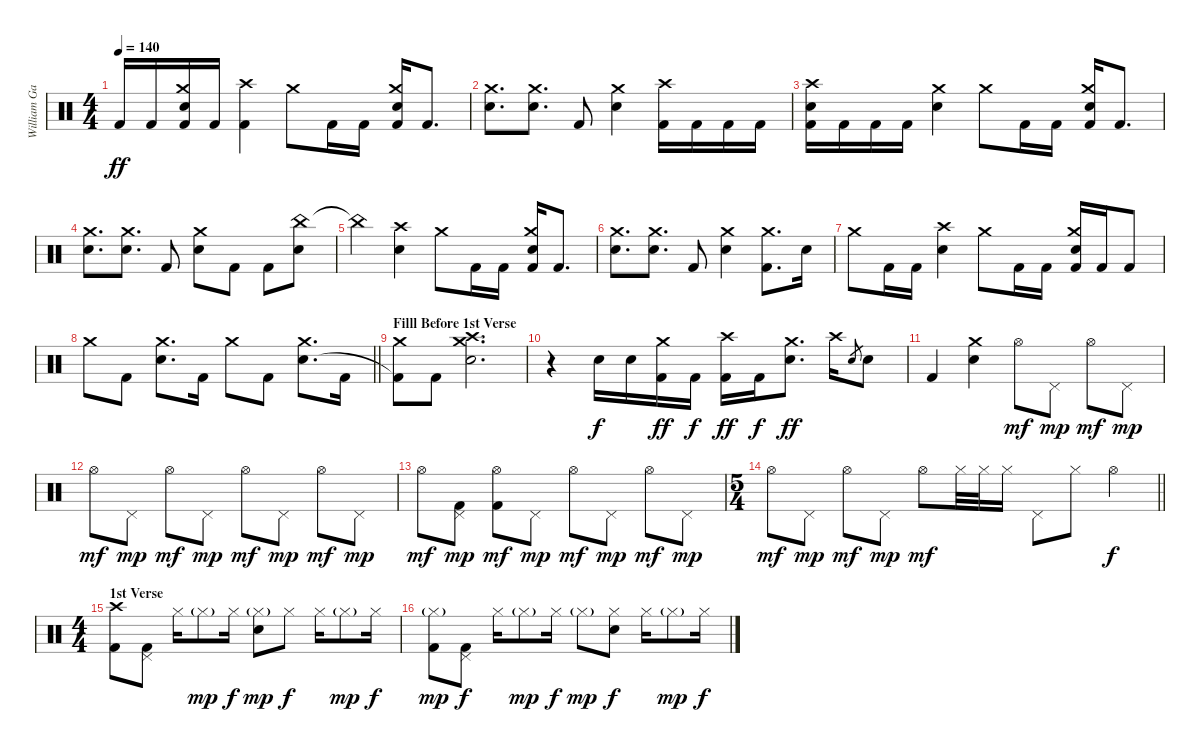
\track ("William Gates (Drums)" "William Ga") {instrument percussion}
\staff {score}
\articulation defaults
\ts (4 4)
\tempo 140
\clef neutral
\ks c "Kick (hit) 2".16{dy ff} "Kick (hit) 2".16
("Crash medium (hit)" "Snare (hit) 2" "Kick (hit) 2").16 "Kick (hit) 2".16 ("Crash high (hit)" "Kick (hit) 2").4 "Crash medium (hit)".8 "Kick (hit) 2".16 "Kick (hit) 2".16 ("Crash medium (hit)" "Snare (hit) 2" "Kick (hit) 2").16 "Kick (hit) 2".8{d} |
("Crash medium (hit)" "Snare (hit) 2").8{d} ("Crash medium (hit)" "Snare (hit) 2").8{d} "Kick (hit) 2".8 ("Crash medium (hit)" "Snare (hit) 2").4 ("Crash high (hit)" "Kick (hit) 2").16 "Kick (hit) 2".16 "Kick (hit) 2".16 "Kick (hit) 2".16 |
("Crash high (hit)" "Snare (hit) 2" "Kick (hit) 2").16 "Kick (hit) 2".16 "Kick (hit) 2".16 "Kick (hit) 2".16 ("Crash medium (hit)" "Snare (hit) 2").4 "Crash medium (hit)".8 "Kick (hit) 2".16 "Kick (hit) 2".16 ("Crash medium (hit)" "Snare (hit) 2" "Kick (hit) 2").16 "Kick (hit) 2".8{d} |
("Crash medium (hit)" "Snare (hit) 2").8{d} ("Crash medium (hit)" "Snare (hit) 2").8{d} "Kick (hit) 2".8 ("Crash medium (hit)" "Snare (hit) 2").8 "Kick (hit) 2".8 "Kick (hit) 2".8 ("China (hit)" "Snare (hit) 2").8 |
"China (hit)"{t}.4 ("Crash high (hit)" "Snare (hit) 2").4 "Crash medium (hit)".8 "Kick (hit) 2".16 "Kick (hit) 2".16 ("Crash medium (hit)" "Snare (hit) 2" "Kick (hit) 2").16 "Kick (hit) 2".8{d} |
("Crash medium (hit)" "Snare (hit) 2").8{d} ("Crash medium (hit)" "Snare (hit) 2").8{d} "Kick (hit) 2".8 ("Crash medium (hit)" "Snare (hit) 2").4 ("Crash medium (hit)" "Kick (hit) 2").8{d} "Snare (hit) 2".16 |
"Crash medium (hit)".8 "Kick (hit) 2".16 "Kick (hit) 2".16 ("Crash high (hit)" "Snare (hit) 2").4 "Crash medium (hit)".8 "Kick (hit) 2".16 "Kick (hit) 2".16 ("Crash medium (hit)" "Snare (hit) 2" "Kick (hit) 2").16 "Kick (hit) 2".16 "Kick (hit) 2".8 |
\barLineRight lightlight "Crash medium (hit)".8 "Kick (hit) 2".8
("Crash medium (hit)" "Snare (hit) 2").8{d} "Kick (hit) 2".16 "Crash medium (hit)".8 "Kick (hit) 2".8 ("Crash medium (hit)" "Snare (hit) 2").8{d} "Kick (hit) 2".16 |
\section ("" "Filll Before 1st Verse")
("Crash medium (hit)" "Kick (hit) 2"{t}).8 "Kick (hit) 2".8 ("Crash medium (hit)" "Crash high (hit)" "Snare (hit) 2").2{d} |
r.4 "Snare (hit) 2".16{dy f} "Snare (hit) 2".16 ("Crash medium (hit)" "Kick (hit) 2").16{dy ff} "Kick (hit) 2".16{dy f} ("Crash high (hit)" "Kick (hit) 2").16{dy ff} "Kick (hit) 2".16{dy f} ("Crash medium (hit)" "Snare (hit) 2").8{d dy ff} "Crash high (hit)".16 "Snare (hit) 2".8{gr} "Snare (hit) 2".8 |
"Kick (hit) 2".4 ("Crash medium (hit)" "Snare (hit) 2").4 "Hi-Hat (open)".8{dy mf} "Pedal Hi-Hat (hit)".8{dy mp} "Hi-Hat (open)".8{dy mf} "Pedal Hi-Hat (hit)".8{dy mp} |
"Hi-Hat (open)".8{dy mf} "Pedal Hi-Hat (hit)".8{dy mp} "Hi-Hat (open)".8{dy mf} "Pedal Hi-Hat (hit)".8{dy mp} "Hi-Hat (open)".8{dy mf} "Pedal Hi-Hat (hit)".8{dy mp} "Hi-Hat (open)".8{dy mf} "Pedal Hi-Hat (hit)".8{dy mp} |
"Hi-Hat (open)".8{dy mf} ("Pedal Hi-Hat (hit)" "Kick (hit) 2").8{dy mp} ("Hi-Hat (open)" "Kick (hit) 2").8{dy mf} "Pedal Hi-Hat (hit)".8{dy mp} "Hi-Hat (open)".8{dy mf} "Pedal Hi-Hat (hit)".8{dy mp} "Hi-Hat (open)".8{dy mf} "Pedal Hi-Hat (hit)".8{dy mp} |
\ts (5 4)
\barLineRight lightlight "Hi-Hat (open)".8{dy mf} "Pedal Hi-Hat (hit)".8{dy mp} "Hi-Hat (open)".8{dy mf} "Pedal Hi-Hat (hit)".8{dy mp} "Hi-Hat (open)".8{dy mf} "Hi-Hat (closed)".32 "Hi-Hat (closed)".32 "Hi-Hat (closed)".16 "Pedal Hi-Hat (hit)".8 "Hi-Hat (closed)".8 "Hi-Hat (open)".4{dy f}
|
\ts (4 4)
\section ("" "1st Verse")
("Crash high (hit)" "Kick (hit) 2").8 ("Pedal Hi-Hat (hit)" "Kick (hit) 2").8 "Hi-Hat (closed)".16 "Hi-Hat (closed)"{g}.8{dy mp} "Hi-Hat (closed)".16{dy f} ("Hi-Hat (closed)"{g} "Snare (hit) 2").8{dy mp} "Hi-Hat (closed)".8{dy f} "Hi-Hat (closed)".16 "Hi-Hat (closed)"{g}.8{dy mp} "Hi-Hat (closed)".16{dy f} |
("Hi-Hat (closed)"{g} "Kick (hit) 2").8{dy mp} ("Pedal Hi-Hat (hit)" "Kick (hit) 2").8{dy f} "Hi-Hat (closed)".16 "Hi-Hat (closed)"{g}.8{dy mp} "Hi-Hat (closed)".16{dy f} "Hi-Hat (closed)"{g}.8{dy mp} ("Hi-Hat (closed)" "Snare (hit) 2").8{dy f} "Hi-Hat (closed)".16 "Hi-Hat (closed)"{g}.8{dy mp} "Hi-Hat (closed)".16{dy f}
